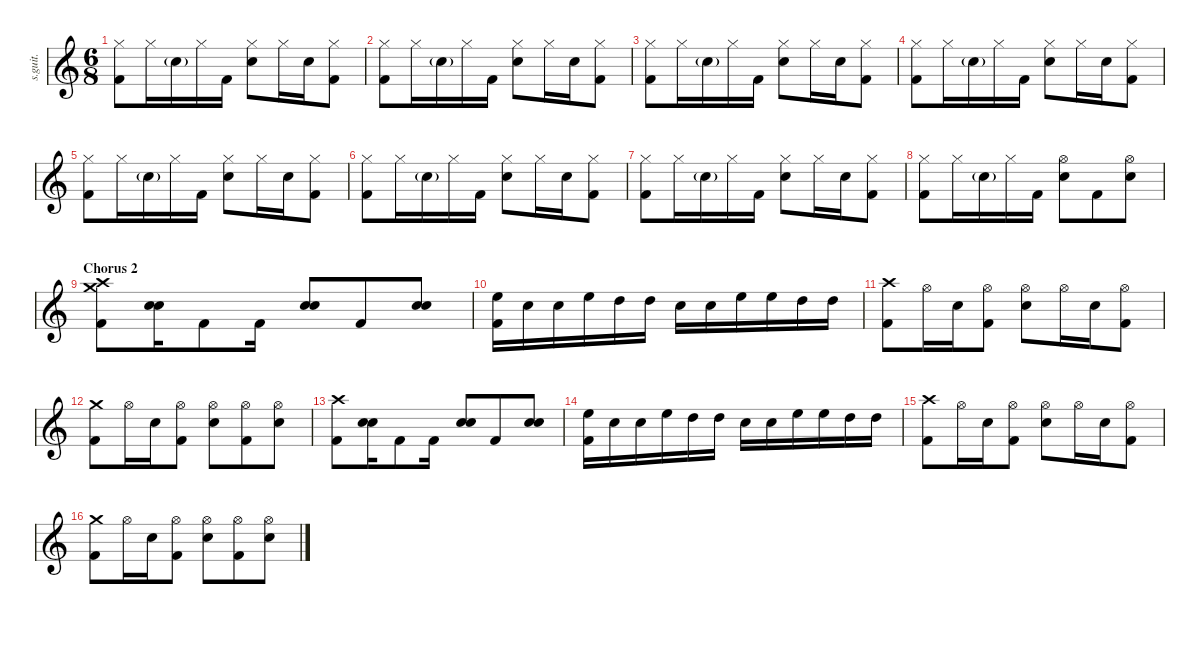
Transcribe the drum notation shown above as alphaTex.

\defaultSystemsLayout 4
\hideDynamics
\bracketExtendMode nobrackets
\track ("John Dolmayan" "s.guit.") {instrument percussion}
\staff {score}
\articulation defaults
\ts (6 8)
\tempo (114 hide)
\clef g2
\ks c
("Hi-Hat (closed)" "Kick (hit) 2").8{lyrics (0 "") lyrics (1 "") lyrics (2 "") lyrics (3 "") lyrics (4 "") dy f} "Hi-Hat (closed)".16{lyrics (0 "") lyrics (1 "") lyrics (2 "") lyrics (3 "") lyrics (4 "")} "Snare (hit) 2"{g}.16{lyrics (0 "") lyrics (1 "") lyrics (2 "") lyrics (3 "") lyrics (4 "") dy ff} "Hi-Hat (closed)".16{lyrics (0 "") lyrics (1 "") lyrics (2 "") lyrics (3 "") lyrics (4 "") dy f} "Kick (hit) 2".16{lyrics (0 "") lyrics (1 "") lyrics (2 "") lyrics (3 "") lyrics (4 "")} ("Hi-Hat (closed)" "Snare (hit) 2").8{lyrics (0 "") lyrics (1 "") lyrics (2 "") lyrics (3 "") lyrics (4 "")} "Hi-Hat (closed)".16{lyrics (0 "") lyrics (1 "") lyrics (2 "") lyrics (3 "") lyrics (4 "")} "Snare (hit) 2".16{lyrics (0 "") lyrics (1 "") lyrics (2 "") lyrics (3 "") lyrics (4 "")} ("Hi-Hat (closed)" "Kick (hit) 2").8{lyrics (0 "") lyrics (1 "") lyrics (2 "") lyrics (3 "") lyrics (4 "")} |
("Hi-Hat (closed)" "Kick (hit) 2").8{lyrics (0 "") lyrics (1 "") lyrics (2 "") lyrics (3 "") lyrics (4 "")} "Hi-Hat (closed)".16{lyrics (0 "") lyrics (1 "") lyrics (2 "") lyrics (3 "") lyrics (4 "")} "Snare (hit) 2"{g}.16{lyrics (0 "") lyrics (1 "") lyrics (2 "") lyrics (3 "") lyrics (4 "") dy ff} "Hi-Hat (closed)".16{lyrics (0 "") lyrics (1 "") lyrics (2 "") lyrics (3 "") lyrics (4 "") dy f} "Kick (hit) 2".16{lyrics (0 "") lyrics (1 "") lyrics (2 "") lyrics (3 "") lyrics (4 "")} ("Hi-Hat (closed)" "Snare (hit) 2").8{lyrics (0 "") lyrics (1 "") lyrics (2 "") lyrics (3 "") lyrics (4 "")} "Hi-Hat (closed)".16{lyrics (0 "") lyrics (1 "") lyrics (2 "") lyrics (3 "") lyrics (4 "")} "Snare (hit) 2".16{lyrics (0 "") lyrics (1 "") lyrics (2 "") lyrics (3 "") lyrics (4 "")} ("Hi-Hat (closed)" "Kick (hit) 2").8{lyrics (0 "") lyrics (1 "") lyrics (2 "") lyrics (3 "") lyrics (4 "")} |
("Hi-Hat (closed)" "Kick (hit) 2").8{lyrics (0 "") lyrics (1 "") lyrics (2 "") lyrics (3 "") lyrics (4 "")} "Hi-Hat (closed)".16{lyrics (0 "") lyrics (1 "") lyrics (2 "") lyrics (3 "") lyrics (4 "")} "Snare (hit) 2"{g}.16{lyrics (0 "") lyrics (1 "") lyrics (2 "") lyrics (3 "") lyrics (4 "") dy ff} "Hi-Hat (closed)".16{lyrics (0 "") lyrics (1 "") lyrics (2 "") lyrics (3 "") lyrics (4 "") dy f} "Kick (hit) 2".16{lyrics (0 "") lyrics (1 "") lyrics (2 "") lyrics (3 "") lyrics (4 "")} ("Hi-Hat (closed)" "Snare (hit) 2").8{lyrics (0 "") lyrics (1 "") lyrics (2 "") lyrics (3 "") lyrics (4 "")} "Hi-Hat (closed)".16{lyrics (0 "") lyrics (1 "") lyrics (2 "") lyrics (3 "") lyrics (4 "")} "Snare (hit) 2".16{lyrics (0 "") lyrics (1 "") lyrics (2 "") lyrics (3 "") lyrics (4 "")} ("Hi-Hat (closed)" "Kick (hit) 2").8{lyrics (0 "") lyrics (1 "") lyrics (2 "") lyrics (3 "") lyrics (4 "")} |
("Hi-Hat (closed)" "Kick (hit) 2").8{lyrics (0 "") lyrics (1 "") lyrics (2 "") lyrics (3 "") lyrics (4 "")} "Hi-Hat (closed)".16{lyrics (0 "") lyrics (1 "") lyrics (2 "") lyrics (3 "") lyrics (4 "")} "Snare (hit) 2"{g}.16{lyrics (0 "") lyrics (1 "") lyrics (2 "") lyrics (3 "") lyrics (4 "") dy ff} "Hi-Hat (closed)".16{lyrics (0 "") lyrics (1 "") lyrics (2 "") lyrics (3 "") lyrics (4 "") dy f} "Kick (hit) 2".16{lyrics (0 "") lyrics (1 "") lyrics (2 "") lyrics (3 "") lyrics (4 "")} ("Hi-Hat (closed)" "Snare (hit) 2").8{lyrics (0 "") lyrics (1 "") lyrics (2 "") lyrics (3 "") lyrics (4 "")} "Hi-Hat (closed)".16{lyrics (0 "") lyrics (1 "") lyrics (2 "") lyrics (3 "") lyrics (4 "")} "Snare (hit) 2".16{lyrics (0 "") lyrics (1 "") lyrics (2 "") lyrics (3 "") lyrics (4 "")} ("Hi-Hat (closed)" "Kick (hit) 2").8{lyrics (0 "") lyrics (1 "") lyrics (2 "") lyrics (3 "") lyrics (4 "")} |
("Hi-Hat (closed)" "Kick (hit) 2").8{lyrics (0 "") lyrics (1 "") lyrics (2 "") lyrics (3 "") lyrics (4 "")} "Hi-Hat (closed)".16{lyrics (0 "") lyrics (1 "") lyrics (2 "") lyrics (3 "") lyrics (4 "")} "Snare (hit) 2"{g}.16{lyrics (0 "") lyrics (1 "") lyrics (2 "") lyrics (3 "") lyrics (4 "") dy ff} "Hi-Hat (closed)".16{lyrics (0 "") lyrics (1 "") lyrics (2 "") lyrics (3 "") lyrics (4 "") dy f} "Kick (hit) 2".16{lyrics (0 "") lyrics (1 "") lyrics (2 "") lyrics (3 "") lyrics (4 "")} ("Hi-Hat (closed)" "Snare (hit) 2").8{lyrics (0 "") lyrics (1 "") lyrics (2 "") lyrics (3 "") lyrics (4 "")} "Hi-Hat (closed)".16{lyrics (0 "") lyrics (1 "") lyrics (2 "") lyrics (3 "") lyrics (4 "")} "Snare (hit) 2".16{lyrics (0 "") lyrics (1 "") lyrics (2 "") lyrics (3 "") lyrics (4 "")} ("Hi-Hat (closed)" "Kick (hit) 2").8{lyrics (0 "") lyrics (1 "") lyrics (2 "") lyrics (3 "") lyrics (4 "")} |
("Hi-Hat (closed)" "Kick (hit) 2").8{lyrics (0 "") lyrics (1 "") lyrics (2 "") lyrics (3 "") lyrics (4 "")} "Hi-Hat (closed)".16{lyrics (0 "") lyrics (1 "") lyrics (2 "") lyrics (3 "") lyrics (4 "")} "Snare (hit) 2"{g}.16{lyrics (0 "") lyrics (1 "") lyrics (2 "") lyrics (3 "") lyrics (4 "") dy ff} "Hi-Hat (closed)".16{lyrics (0 "") lyrics (1 "") lyrics (2 "") lyrics (3 "") lyrics (4 "") dy f} "Kick (hit) 2".16{lyrics (0 "") lyrics (1 "") lyrics (2 "") lyrics (3 "") lyrics (4 "")} ("Hi-Hat (closed)" "Snare (hit) 2").8{lyrics (0 "") lyrics (1 "") lyrics (2 "") lyrics (3 "") lyrics (4 "")} "Hi-Hat (closed)".16{lyrics (0 "") lyrics (1 "") lyrics (2 "") lyrics (3 "") lyrics (4 "")} "Snare (hit) 2".16{lyrics (0 "") lyrics (1 "") lyrics (2 "") lyrics (3 "") lyrics (4 "")} ("Hi-Hat (closed)" "Kick (hit) 2").8{lyrics (0 "") lyrics (1 "") lyrics (2 "") lyrics (3 "") lyrics (4 "")} |
("Hi-Hat (closed)" "Kick (hit) 2").8{lyrics (0 "") lyrics (1 "") lyrics (2 "") lyrics (3 "") lyrics (4 "")} "Hi-Hat (closed)".16{lyrics (0 "") lyrics (1 "") lyrics (2 "") lyrics (3 "") lyrics (4 "")} "Snare (hit) 2"{g}.16{lyrics (0 "") lyrics (1 "") lyrics (2 "") lyrics (3 "") lyrics (4 "") dy ff} "Hi-Hat (closed)".16{lyrics (0 "") lyrics (1 "") lyrics (2 "") lyrics (3 "") lyrics (4 "") dy f} "Kick (hit) 2".16{lyrics (0 "") lyrics (1 "") lyrics (2 "") lyrics (3 "") lyrics (4 "")} ("Hi-Hat (closed)" "Snare (hit) 2").8{lyrics (0 "") lyrics (1 "") lyrics (2 "") lyrics (3 "") lyrics (4 "")} "Hi-Hat (closed)".16{lyrics (0 "") lyrics (1 "") lyrics (2 "") lyrics (3 "") lyrics (4 "")} "Snare (hit) 2".16{lyrics (0 "") lyrics (1 "") lyrics (2 "") lyrics (3 "") lyrics (4 "")} ("Hi-Hat (closed)" "Kick (hit) 2").8{lyrics (0 "") lyrics (1 "") lyrics (2 "") lyrics (3 "") lyrics (4 "")} |
("Hi-Hat (closed)" "Kick (hit) 2").8{lyrics (0 "") lyrics (1 "") lyrics (2 "") lyrics (3 "") lyrics (4 "")} "Hi-Hat (closed)".16{lyrics (0 "") lyrics (1 "") lyrics (2 "") lyrics (3 "") lyrics (4 "")} "Snare (hit) 2"{g}.16{lyrics (0 "") lyrics (1 "") lyrics (2 "") lyrics (3 "") lyrics (4 "") dy ff} "Hi-Hat (closed)".16{lyrics (0 "") lyrics (1 "") lyrics (2 "") lyrics (3 "") lyrics (4 "") dy f} "Kick (hit) 2".16{lyrics (0 "") lyrics (1 "") lyrics (2 "") lyrics (3 "") lyrics (4 "")} ("Hi-Hat (open)" "Snare (hit) 2").8{lyrics (0 "") lyrics (1 "") lyrics (2 "") lyrics (3 "") lyrics (4 "")} "Kick (hit) 2".8{lyrics (0 "") lyrics (1 "") lyrics (2 "") lyrics (3 "") lyrics (4 "")} ("Hi-Hat (open)" "Snare (hit) 2").8{lyrics (0 "") lyrics (1 "") lyrics (2 "") lyrics (3 "") lyrics (4 "")} |
\section ("" "Chorus 2")
\tempo (120 hide)
("Crash medium (hit)" "Crash high (hit)" "Kick (hit) 2").8{lyrics (0 "") lyrics (1 "") lyrics (2 "") lyrics (3 "") lyrics (4 "")} ("Snare (hit) 2" "Snare (hit) 2").16{bu 30 lyrics (0 "") lyrics (1 "") lyrics (2 "") lyrics (3 "") lyrics (4 "")} "Kick (hit) 2".8{lyrics (0 "") lyrics (1 "") lyrics (2 "") lyrics (3 "") lyrics (4 "")} "Kick (hit) 2".16{lyrics (0 "") lyrics (1 "") lyrics (2 "") lyrics (3 "") lyrics (4 "")} ("Snare (hit) 2" "Snare (hit) 2").8{bu 30 lyrics (0 "") lyrics (1 "") lyrics (2 "") lyrics (3 "") lyrics (4 "")} "Kick (hit) 2".8{lyrics (0 "") lyrics (1 "") lyrics (2 "") lyrics (3 "") lyrics (4 "")} ("Snare (hit) 2" "Snare (hit) 2").8{bu 30 lyrics (0 "") lyrics (1 "") lyrics (2 "") lyrics (3 "") lyrics (4 "")} |
("High Floor Tom (hit)" "Kick (hit) 2").16{lyrics (0 "") lyrics (1 "") lyrics (2 "") lyrics (3 "") lyrics (4 "")} "Snare (hit) 2".16{lyrics (0 "") lyrics (1 "") lyrics (2 "") lyrics (3 "") lyrics (4 "")} "Snare (hit) 2".16{lyrics (0 "") lyrics (1 "") lyrics (2 "") lyrics (3 "") lyrics (4 "")} "High Floor Tom (hit)".16{lyrics (0 "") lyrics (1 "") lyrics (2 "") lyrics (3 "") lyrics (4 "")} "High Tom (hit)".16{lyrics (0 "") lyrics (1 "") lyrics (2 "") lyrics (3 "") lyrics (4 "")} "High Tom (hit)".16{lyrics (0 "") lyrics (1 "") lyrics (2 "") lyrics (3 "") lyrics (4 "")} "Snare (hit) 2".16{lyrics (0 "") lyrics (1 "") lyrics (2 "") lyrics (3 "") lyrics (4 "")} "Snare (hit) 2".16{lyrics (0 "") lyrics (1 "") lyrics (2 "") lyrics (3 "") lyrics (4 "")} "High Floor Tom (hit)".16{lyrics (0 "") lyrics (1 "") lyrics (2 "") lyrics (3 "") lyrics (4 "")} "High Floor Tom (hit)".16{lyrics (0 "") lyrics (1 "") lyrics (2 "") lyrics (3 "") lyrics (4 "")} "High Tom (hit)".16{lyrics (0 "") lyrics (1 "") lyrics (2 "") lyrics (3 "") lyrics (4 "")} "High Tom (hit)".16{lyrics (0 "") lyrics (1 "") lyrics (2 "") lyrics (3 "") lyrics (4 "")} |
("Crash high (hit)" "Kick (hit) 2").8{lyrics (0 "") lyrics (1 "") lyrics (2 "") lyrics (3 "") lyrics (4 "")} "Hi-Hat (open)".16{lyrics (0 "") lyrics (1 "") lyrics (2 "") lyrics (3 "") lyrics (4 "")} "Snare (hit) 2".16{lyrics (0 "") lyrics (1 "") lyrics (2 "") lyrics (3 "") lyrics (4 "")} ("Hi-Hat (open)" "Kick (hit) 2").8{lyrics (0 "") lyrics (1 "") lyrics (2 "") lyrics (3 "") lyrics (4 "")} ("Hi-Hat (open)" "Snare (hit) 2").8{lyrics (0 "") lyrics (1 "") lyrics (2 "") lyrics (3 "") lyrics (4 "")} "Hi-Hat (open)".16{lyrics (0 "") lyrics (1 "") lyrics (2 "") lyrics (3 "") lyrics (4 "")} "Snare (hit) 2".16{lyrics (0 "") lyrics (1 "") lyrics (2 "") lyrics (3 "") lyrics (4 "")} ("Hi-Hat (open)" "Kick (hit) 2").8{lyrics (0 "") lyrics (1 "") lyrics (2 "") lyrics (3 "") lyrics (4 "")} |
("Crash medium (hit)" "Kick (hit) 2").8{lyrics (0 "") lyrics (1 "") lyrics (2 "") lyrics (3 "") lyrics (4 "")} "Hi-Hat (open)".16{lyrics (0 "") lyrics (1 "") lyrics (2 "") lyrics (3 "") lyrics (4 "")} "Snare (hit) 2".16{lyrics (0 "") lyrics (1 "") lyrics (2 "") lyrics (3 "") lyrics (4 "")} ("Hi-Hat (open)" "Kick (hit) 2").8{lyrics (0 "") lyrics (1 "") lyrics (2 "") lyrics (3 "") lyrics (4 "")} ("Hi-Hat (open)" "Snare (hit) 2").8{lyrics (0 "") lyrics (1 "") lyrics (2 "") lyrics (3 "") lyrics (4 "")} ("Hi-Hat (open)" "Kick (hit) 2").8{lyrics (0 "") lyrics (1 "") lyrics (2 "") lyrics (3 "") lyrics (4 "")} ("Hi-Hat (open)" "Snare (hit) 2").8{lyrics (0 "") lyrics (1 "") lyrics (2 "") lyrics (3 "") lyrics (4 "")} |
("Crash high (hit)" "Kick (hit) 2").8{lyrics (0 "") lyrics (1 "") lyrics (2 "") lyrics (3 "") lyrics (4 "")} ("Snare (hit) 2" "Snare (hit) 2").16{bu 30 lyrics (0 "") lyrics (1 "") lyrics (2 "") lyrics (3 "") lyrics (4 "")} "Kick (hit) 2".8{lyrics (0 "") lyrics (1 "") lyrics (2 "") lyrics (3 "") lyrics (4 "")} "Kick (hit) 2".16{lyrics (0 "") lyrics (1 "") lyrics (2 "") lyrics (3 "") lyrics (4 "")} ("Snare (hit) 2" "Snare (hit) 2").8{bu 30 lyrics (0 "") lyrics (1 "") lyrics (2 "") lyrics (3 "") lyrics (4 "")} "Kick (hit) 2".8{lyrics (0 "") lyrics (1 "") lyrics (2 "") lyrics (3 "") lyrics (4 "")} ("Snare (hit) 2" "Snare (hit) 2").8{bu 30 lyrics (0 "") lyrics (1 "") lyrics (2 "") lyrics (3 "") lyrics (4 "")} |
("High Floor Tom (hit)" "Kick (hit) 2").16{lyrics (0 "") lyrics (1 "") lyrics (2 "") lyrics (3 "") lyrics (4 "")} "Snare (hit) 2".16{lyrics (0 "") lyrics (1 "") lyrics (2 "") lyrics (3 "") lyrics (4 "")} "Snare (hit) 2".16{lyrics (0 "") lyrics (1 "") lyrics (2 "") lyrics (3 "") lyrics (4 "")} "High Floor Tom (hit)".16{lyrics (0 "") lyrics (1 "") lyrics (2 "") lyrics (3 "") lyrics (4 "")} "High Tom (hit)".16{lyrics (0 "") lyrics (1 "") lyrics (2 "") lyrics (3 "") lyrics (4 "")} "High Tom (hit)".16{lyrics (0 "") lyrics (1 "") lyrics (2 "") lyrics (3 "") lyrics (4 "")} "Snare (hit) 2".16{lyrics (0 "") lyrics (1 "") lyrics (2 "") lyrics (3 "") lyrics (4 "")} "Snare (hit) 2".16{lyrics (0 "") lyrics (1 "") lyrics (2 "") lyrics (3 "") lyrics (4 "")} "High Floor Tom (hit)".16{lyrics (0 "") lyrics (1 "") lyrics (2 "") lyrics (3 "") lyrics (4 "")} "High Floor Tom (hit)".16{lyrics (0 "") lyrics (1 "") lyrics (2 "") lyrics (3 "") lyrics (4 "")} "High Tom (hit)".16{lyrics (0 "") lyrics (1 "") lyrics (2 "") lyrics (3 "") lyrics (4 "")} "High Tom (hit)".16{lyrics (0 "") lyrics (1 "") lyrics (2 "") lyrics (3 "") lyrics (4 "")} |
("Crash high (hit)" "Kick (hit) 2").8{lyrics (0 "") lyrics (1 "") lyrics (2 "") lyrics (3 "") lyrics (4 "")} "Hi-Hat (open)".16{lyrics (0 "") lyrics (1 "") lyrics (2 "") lyrics (3 "") lyrics (4 "")} "Snare (hit) 2".16{lyrics (0 "") lyrics (1 "") lyrics (2 "") lyrics (3 "") lyrics (4 "")} ("Hi-Hat (open)" "Kick (hit) 2").8{lyrics (0 "") lyrics (1 "") lyrics (2 "") lyrics (3 "") lyrics (4 "")} ("Hi-Hat (open)" "Snare (hit) 2").8{lyrics (0 "") lyrics (1 "") lyrics (2 "") lyrics (3 "") lyrics (4 "")} "Hi-Hat (open)".16{lyrics (0 "") lyrics (1 "") lyrics (2 "") lyrics (3 "") lyrics (4 "")} "Snare (hit) 2".16{lyrics (0 "") lyrics (1 "") lyrics (2 "") lyrics (3 "") lyrics (4 "")} ("Hi-Hat (open)" "Kick (hit) 2").8{lyrics (0 "") lyrics (1 "") lyrics (2 "") lyrics (3 "") lyrics (4 "")} |
("Crash medium (hit)" "Kick (hit) 2").8{lyrics (0 "") lyrics (1 "") lyrics (2 "") lyrics (3 "") lyrics (4 "")} "Hi-Hat (open)".16{lyrics (0 "") lyrics (1 "") lyrics (2 "") lyrics (3 "") lyrics (4 "")} "Snare (hit) 2".16{lyrics (0 "") lyrics (1 "") lyrics (2 "") lyrics (3 "") lyrics (4 "")} ("Hi-Hat (open)" "Kick (hit) 2").8{lyrics (0 "") lyrics (1 "") lyrics (2 "") lyrics (3 "") lyrics (4 "")} ("Hi-Hat (open)" "Snare (hit) 2").8{lyrics (0 "") lyrics (1 "") lyrics (2 "") lyrics (3 "") lyrics (4 "")} ("Hi-Hat (open)" "Kick (hit) 2").8{lyrics (0 "") lyrics (1 "") lyrics (2 "") lyrics (3 "") lyrics (4 "")} ("Hi-Hat (open)" "Snare (hit) 2").8{lyrics (0 "") lyrics (1 "") lyrics (2 "") lyrics (3 "") lyrics (4 "")}
